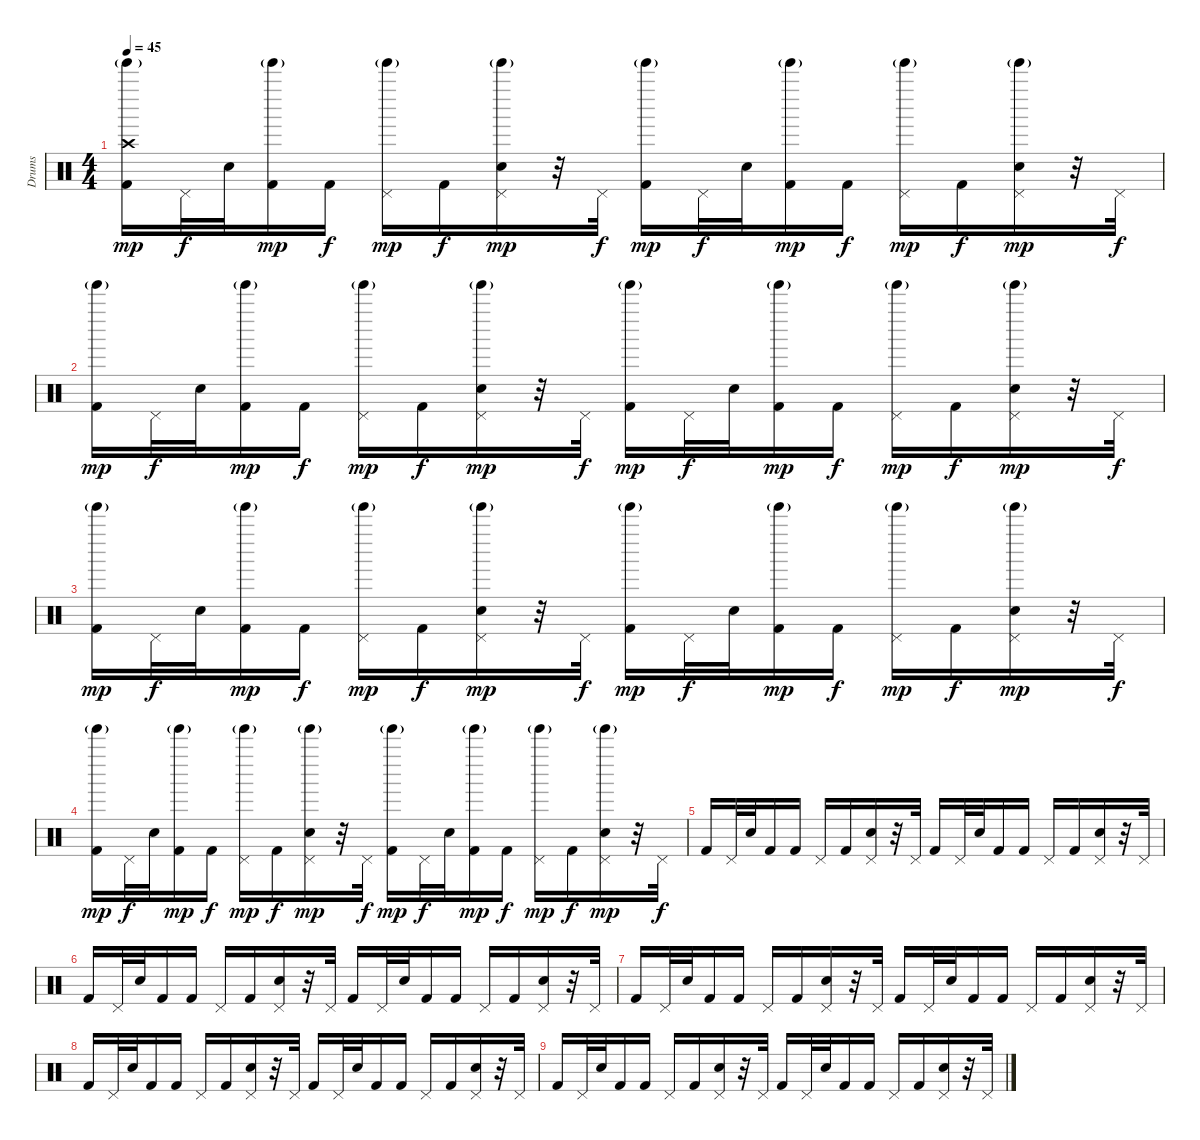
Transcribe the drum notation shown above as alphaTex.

\track ("Drums" "Drums") {instrument percussion}
\staff {score}
\articulation defaults
\ts (4 4)
\tempo 45
\clef neutral
\ks c
("Crash high (hit)" "Tinkle Bell (hit)"{g} "Kick (hit) 2").16{dy mp} "Pedal Hi-Hat (hit)".32{dy f} "Hand Clap (hit)".32 ("Tinkle Bell (hit)"{g} "Kick (hit) 2").16{dy mp} "Kick (hit) 2".16{dy f} ("Pedal Hi-Hat (hit)" "Tinkle Bell (hit)"{g}).16{dy mp} "Kick (hit) 2".16{dy f} ("Pedal Hi-Hat (hit)" "Hand Clap (hit)" "Tinkle Bell (hit)"{g}).16{dy mp} r.32 "Pedal Hi-Hat (hit)".32{dy f} ("Tinkle Bell (hit)"{g} "Kick (hit) 2").16{dy mp} "Pedal Hi-Hat (hit)".32{dy f} "Hand Clap (hit)".32 ("Tinkle Bell (hit)"{g} "Kick (hit) 2").16{dy mp} "Kick (hit) 2".16{dy f} ("Pedal Hi-Hat (hit)" "Tinkle Bell (hit)"{g}).16{dy mp} "Kick (hit) 2".16{dy f} ("Pedal Hi-Hat (hit)" "Hand Clap (hit)" "Tinkle Bell (hit)"{g}).16{dy mp} r.32 "Pedal Hi-Hat (hit)".32{dy f} |
("Tinkle Bell (hit)"{g} "Kick (hit) 2").16{dy mp} "Pedal Hi-Hat (hit)".32{dy f} "Hand Clap (hit)".32 ("Tinkle Bell (hit)"{g} "Kick (hit) 2").16{dy mp} "Kick (hit) 2".16{dy f} ("Pedal Hi-Hat (hit)" "Tinkle Bell (hit)"{g}).16{dy mp} "Kick (hit) 2".16{dy f} ("Pedal Hi-Hat (hit)" "Hand Clap (hit)" "Tinkle Bell (hit)"{g}).16{dy mp} r.32 "Pedal Hi-Hat (hit)".32{dy f} ("Tinkle Bell (hit)"{g} "Kick (hit) 2").16{dy mp} "Pedal Hi-Hat (hit)".32{dy f} "Hand Clap (hit)".32 ("Tinkle Bell (hit)"{g} "Kick (hit) 2").16{dy mp} "Kick (hit) 2".16{dy f} ("Pedal Hi-Hat (hit)" "Tinkle Bell (hit)"{g}).16{dy mp} "Kick (hit) 2".16{dy f} ("Pedal Hi-Hat (hit)" "Hand Clap (hit)" "Tinkle Bell (hit)"{g}).16{dy mp} r.32 "Pedal Hi-Hat (hit)".32{dy f} |
("Tinkle Bell (hit)"{g} "Kick (hit) 2").16{dy mp} "Pedal Hi-Hat (hit)".32{dy f} "Hand Clap (hit)".32 ("Tinkle Bell (hit)"{g} "Kick (hit) 2").16{dy mp} "Kick (hit) 2".16{dy f} ("Pedal Hi-Hat (hit)" "Tinkle Bell (hit)"{g}).16{dy mp} "Kick (hit) 2".16{dy f} ("Pedal Hi-Hat (hit)" "Hand Clap (hit)" "Tinkle Bell (hit)"{g}).16{dy mp} r.32 "Pedal Hi-Hat (hit)".32{dy f} ("Tinkle Bell (hit)"{g} "Kick (hit) 2").16{dy mp} "Pedal Hi-Hat (hit)".32{dy f} "Hand Clap (hit)".32 ("Tinkle Bell (hit)"{g} "Kick (hit) 2").16{dy mp} "Kick (hit) 2".16{dy f} ("Pedal Hi-Hat (hit)" "Tinkle Bell (hit)"{g}).16{dy mp} "Kick (hit) 2".16{dy f} ("Pedal Hi-Hat (hit)" "Hand Clap (hit)" "Tinkle Bell (hit)"{g}).16{dy mp} r.32 "Pedal Hi-Hat (hit)".32{dy f} |
("Tinkle Bell (hit)"{g} "Kick (hit) 2").16{dy mp} "Pedal Hi-Hat (hit)".32{dy f} "Hand Clap (hit)".32 ("Tinkle Bell (hit)"{g} "Kick (hit) 2").16{dy mp} "Kick (hit) 2".16{dy f} ("Pedal Hi-Hat (hit)" "Tinkle Bell (hit)"{g}).16{dy mp} "Kick (hit) 2".16{dy f} ("Pedal Hi-Hat (hit)" "Hand Clap (hit)" "Tinkle Bell (hit)"{g}).16{dy mp} r.32 "Pedal Hi-Hat (hit)".32{dy f} ("Tinkle Bell (hit)"{g} "Kick (hit) 2").16{dy mp} "Pedal Hi-Hat (hit)".32{dy f} "Hand Clap (hit)".32 ("Tinkle Bell (hit)"{g} "Kick (hit) 2").16{dy mp} "Kick (hit) 2".16{dy f} ("Pedal Hi-Hat (hit)" "Tinkle Bell (hit)"{g}).16{dy mp} "Kick (hit) 2".16{dy f} ("Pedal Hi-Hat (hit)" "Hand Clap (hit)" "Tinkle Bell (hit)"{g}).16{dy mp} r.32 "Pedal Hi-Hat (hit)".32{dy f} |
"Kick (hit) 2".16 "Pedal Hi-Hat (hit)".32 "Hand Clap (hit)".32 "Kick (hit) 2".16 "Kick (hit) 2".16 "Pedal Hi-Hat (hit)".16 "Kick (hit) 2".16 ("Pedal Hi-Hat (hit)" "Hand Clap (hit)").16 r.32 "Pedal Hi-Hat (hit)".32 "Kick (hit) 2".16 "Pedal Hi-Hat (hit)".32 "Hand Clap (hit)".32 "Kick (hit) 2".16 "Kick (hit) 2".16 "Pedal Hi-Hat (hit)".16 "Kick (hit) 2".16 ("Pedal Hi-Hat (hit)" "Hand Clap (hit)").16 r.32 "Pedal Hi-Hat (hit)".32 |
"Kick (hit) 2".16 "Pedal Hi-Hat (hit)".32 "Hand Clap (hit)".32 "Kick (hit) 2".16 "Kick (hit) 2".16 "Pedal Hi-Hat (hit)".16 "Kick (hit) 2".16 ("Pedal Hi-Hat (hit)" "Hand Clap (hit)").16 r.32 "Pedal Hi-Hat (hit)".32 "Kick (hit) 2".16 "Pedal Hi-Hat (hit)".32 "Hand Clap (hit)".32 "Kick (hit) 2".16 "Kick (hit) 2".16 "Pedal Hi-Hat (hit)".16 "Kick (hit) 2".16 ("Pedal Hi-Hat (hit)" "Hand Clap (hit)").16 r.32 "Pedal Hi-Hat (hit)".32 |
"Kick (hit) 2".16 "Pedal Hi-Hat (hit)".32 "Hand Clap (hit)".32 "Kick (hit) 2".16 "Kick (hit) 2".16 "Pedal Hi-Hat (hit)".16 "Kick (hit) 2".16 ("Pedal Hi-Hat (hit)" "Hand Clap (hit)").16 r.32 "Pedal Hi-Hat (hit)".32 "Kick (hit) 2".16 "Pedal Hi-Hat (hit)".32 "Hand Clap (hit)".32 "Kick (hit) 2".16 "Kick (hit) 2".16 "Pedal Hi-Hat (hit)".16 "Kick (hit) 2".16 ("Pedal Hi-Hat (hit)" "Hand Clap (hit)").16 r.32 "Pedal Hi-Hat (hit)".32 |
"Kick (hit) 2".16 "Pedal Hi-Hat (hit)".32 "Hand Clap (hit)".32 "Kick (hit) 2".16 "Kick (hit) 2".16 "Pedal Hi-Hat (hit)".16 "Kick (hit) 2".16 ("Pedal Hi-Hat (hit)" "Hand Clap (hit)").16 r.32 "Pedal Hi-Hat (hit)".32 "Kick (hit) 2".16 "Pedal Hi-Hat (hit)".32 "Hand Clap (hit)".32 "Kick (hit) 2".16 "Kick (hit) 2".16 "Pedal Hi-Hat (hit)".16 "Kick (hit) 2".16 ("Pedal Hi-Hat (hit)" "Hand Clap (hit)").16 r.32 "Pedal Hi-Hat (hit)".32 |
"Kick (hit) 2".16 "Pedal Hi-Hat (hit)".32 "Hand Clap (hit)".32 "Kick (hit) 2".16 "Kick (hit) 2".16 "Pedal Hi-Hat (hit)".16 "Kick (hit) 2".16 ("Pedal Hi-Hat (hit)" "Hand Clap (hit)").16 r.32 "Pedal Hi-Hat (hit)".32 "Kick (hit) 2".16 "Pedal Hi-Hat (hit)".32 "Hand Clap (hit)".32 "Kick (hit) 2".16 "Kick (hit) 2".16 "Pedal Hi-Hat (hit)".16 "Kick (hit) 2".16 ("Pedal Hi-Hat (hit)" "Hand Clap (hit)").16 r.32 "Pedal Hi-Hat (hit)".32
